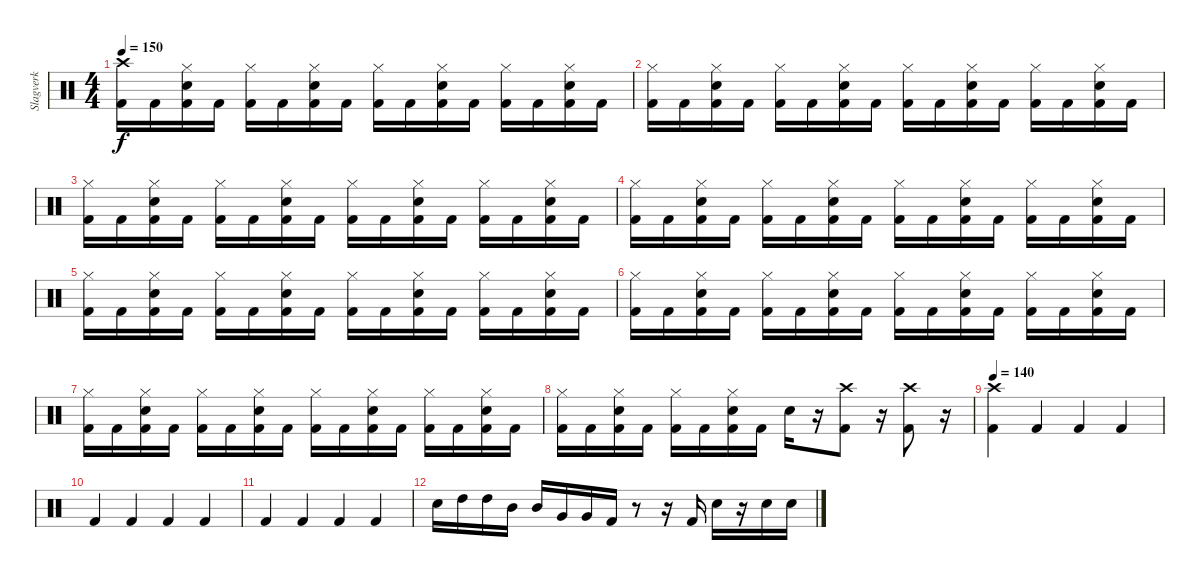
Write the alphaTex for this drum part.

\track ("Slagverk" "Slagverk") {instrument percussion}
\staff {score}
\articulation defaults
\ts (4 4)
\tempo 150
\clef neutral
\ks c
("Crash high (hit)" "Kick (hit) 2").16{dy f} "Kick (hit) 2".16 ("Hi-Hat (closed)" "Electric Snare (hit)" "Kick (hit) 2").16 "Kick (hit) 2".16 ("Hi-Hat (closed)" "Kick (hit) 2").16 "Kick (hit) 2".16 ("Hi-Hat (closed)" "Electric Snare (hit)" "Kick (hit) 2").16 "Kick (hit) 2".16 ("Hi-Hat (closed)" "Kick (hit) 2").16 "Kick (hit) 2".16 ("Hi-Hat (closed)" "Electric Snare (hit)" "Kick (hit) 2").16 "Kick (hit) 2".16 ("Hi-Hat (closed)" "Kick (hit) 2").16 "Kick (hit) 2".16 ("Hi-Hat (closed)" "Electric Snare (hit)" "Kick (hit) 2").16 "Kick (hit) 2".16 |
("Hi-Hat (closed)" "Kick (hit) 2").16 "Kick (hit) 2".16 ("Hi-Hat (closed)" "Electric Snare (hit)" "Kick (hit) 2").16 "Kick (hit) 2".16 ("Hi-Hat (closed)" "Kick (hit) 2").16 "Kick (hit) 2".16 ("Hi-Hat (closed)" "Electric Snare (hit)" "Kick (hit) 2").16 "Kick (hit) 2".16 ("Hi-Hat (closed)" "Kick (hit) 2").16 "Kick (hit) 2".16 ("Hi-Hat (closed)" "Electric Snare (hit)" "Kick (hit) 2").16 "Kick (hit) 2".16 ("Hi-Hat (closed)" "Kick (hit) 2").16 "Kick (hit) 2".16 ("Hi-Hat (closed)" "Electric Snare (hit)" "Kick (hit) 2").16 "Kick (hit) 2".16 |
("Hi-Hat (closed)" "Kick (hit) 2").16 "Kick (hit) 2".16 ("Hi-Hat (closed)" "Electric Snare (hit)" "Kick (hit) 2").16 "Kick (hit) 2".16 ("Hi-Hat (closed)" "Kick (hit) 2").16 "Kick (hit) 2".16 ("Hi-Hat (closed)" "Electric Snare (hit)" "Kick (hit) 2").16 "Kick (hit) 2".16 ("Hi-Hat (closed)" "Kick (hit) 2").16 "Kick (hit) 2".16 ("Hi-Hat (closed)" "Electric Snare (hit)" "Kick (hit) 2").16 "Kick (hit) 2".16 ("Hi-Hat (closed)" "Kick (hit) 2").16 "Kick (hit) 2".16 ("Hi-Hat (closed)" "Electric Snare (hit)" "Kick (hit) 2").16 "Kick (hit) 2".16 |
("Hi-Hat (closed)" "Kick (hit) 2").16 "Kick (hit) 2".16 ("Hi-Hat (closed)" "Electric Snare (hit)" "Kick (hit) 2").16 "Kick (hit) 2".16 ("Hi-Hat (closed)" "Kick (hit) 2").16 "Kick (hit) 2".16 ("Hi-Hat (closed)" "Electric Snare (hit)" "Kick (hit) 2").16 "Kick (hit) 2".16 ("Hi-Hat (closed)" "Kick (hit) 2").16 "Kick (hit) 2".16 ("Hi-Hat (closed)" "Electric Snare (hit)" "Kick (hit) 2").16 "Kick (hit) 2".16 ("Hi-Hat (closed)" "Kick (hit) 2").16 "Kick (hit) 2".16 ("Hi-Hat (closed)" "Electric Snare (hit)" "Kick (hit) 2").16 "Kick (hit) 2".16 |
("Hi-Hat (closed)" "Kick (hit) 2").16 "Kick (hit) 2".16 ("Hi-Hat (closed)" "Electric Snare (hit)" "Kick (hit) 2").16 "Kick (hit) 2".16 ("Hi-Hat (closed)" "Kick (hit) 2").16 "Kick (hit) 2".16 ("Hi-Hat (closed)" "Electric Snare (hit)" "Kick (hit) 2").16 "Kick (hit) 2".16 ("Hi-Hat (closed)" "Kick (hit) 2").16 "Kick (hit) 2".16 ("Hi-Hat (closed)" "Electric Snare (hit)" "Kick (hit) 2").16 "Kick (hit) 2".16 ("Hi-Hat (closed)" "Kick (hit) 2").16 "Kick (hit) 2".16 ("Hi-Hat (closed)" "Electric Snare (hit)" "Kick (hit) 2").16 "Kick (hit) 2".16 |
("Hi-Hat (closed)" "Kick (hit) 2").16 "Kick (hit) 2".16 ("Hi-Hat (closed)" "Electric Snare (hit)" "Kick (hit) 2").16 "Kick (hit) 2".16 ("Hi-Hat (closed)" "Kick (hit) 2").16 "Kick (hit) 2".16 ("Hi-Hat (closed)" "Electric Snare (hit)" "Kick (hit) 2").16 "Kick (hit) 2".16 ("Hi-Hat (closed)" "Kick (hit) 2").16 "Kick (hit) 2".16 ("Hi-Hat (closed)" "Electric Snare (hit)" "Kick (hit) 2").16 "Kick (hit) 2".16 ("Hi-Hat (closed)" "Kick (hit) 2").16 "Kick (hit) 2".16 ("Hi-Hat (closed)" "Electric Snare (hit)" "Kick (hit) 2").16 "Kick (hit) 2".16 |
("Hi-Hat (closed)" "Kick (hit) 2").16 "Kick (hit) 2".16 ("Hi-Hat (closed)" "Electric Snare (hit)" "Kick (hit) 2").16 "Kick (hit) 2".16 ("Hi-Hat (closed)" "Kick (hit) 2").16 "Kick (hit) 2".16 ("Hi-Hat (closed)" "Electric Snare (hit)" "Kick (hit) 2").16 "Kick (hit) 2".16 ("Hi-Hat (closed)" "Kick (hit) 2").16 "Kick (hit) 2".16 ("Hi-Hat (closed)" "Electric Snare (hit)" "Kick (hit) 2").16 "Kick (hit) 2".16 ("Hi-Hat (closed)" "Kick (hit) 2").16 "Kick (hit) 2".16 ("Hi-Hat (closed)" "Electric Snare (hit)" "Kick (hit) 2").16 "Kick (hit) 2".16 |
("Hi-Hat (closed)" "Kick (hit) 2").16 "Kick (hit) 2".16 ("Hi-Hat (closed)" "Electric Snare (hit)" "Kick (hit) 2").16 "Kick (hit) 2".16 ("Hi-Hat (closed)" "Kick (hit) 2").16 "Kick (hit) 2".16 ("Hi-Hat (closed)" "Electric Snare (hit)" "Kick (hit) 2").16 "Kick (hit) 2".16 "Electric Snare (hit)".16 r.16 ("Crash high (hit)" "Kick (hit) 2").8 r.16 ("Crash high (hit)" "Kick (hit) 2").8 r.16 |
\tempo 140
("Crash high (hit)" "Kick (hit) 2").4 "Kick (hit) 2".4 "Kick (hit) 2".4 "Kick (hit) 2".4 |
"Kick (hit) 2".4 "Kick (hit) 2".4 "Kick (hit) 2".4 "Kick (hit) 2".4 |
"Kick (hit) 2".4 "Kick (hit) 2".4 "Kick (hit) 2".4 "Kick (hit) 2".4 |
"Electric Snare (hit)".16 "High Tom (hit)".16 "High Tom (hit)".16 "Mid Tom (hit)".16 "Mid Tom (hit)".16 "Very Low Tom (hit)".16 "Very Low Tom (hit)".16 "Kick (hit) 2".16 r.8 r.16 "Kick (hit) 2".16 "Electric Snare (hit)".16 r.16 "Electric Snare (hit)".16 "Electric Snare (hit)".16
